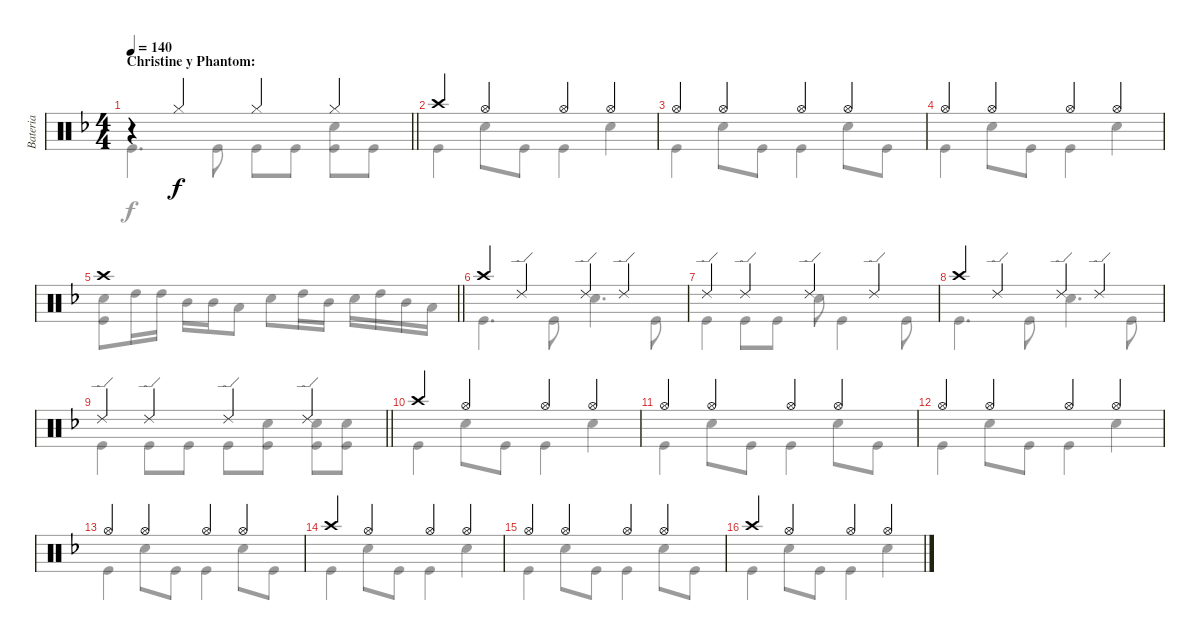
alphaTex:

\track ("Bateria" "Bateria") {instrument percussion}
\staff {score}
\articulation defaults
\voice
\ts (4 4)
\section ("" "Christine y Phantom:")
\tempo 140
\clef neutral
\barLineRight lightlight
\ks dminor
r.4{dy f} "Hi-Hat (closed)".4 "Hi-Hat (closed)".4 "Hi-Hat (closed)".4 |
"Crash high (hit)".4 "Hi-Hat (open)".4 "Hi-Hat (open)".4 "Hi-Hat (open)".4 |
"Hi-Hat (open)".4 "Hi-Hat (open)".4 "Hi-Hat (open)".4 "Hi-Hat (open)".4 |
"Hi-Hat (open)".4 "Hi-Hat (open)".4 "Hi-Hat (open)".4 "Hi-Hat (open)".4 |
\barLineRight lightlight "Crash high (hit)".1
|
"Crash high (hit)".4 "Ride (edge) 2".4 "Ride (edge) 2".4 "Ride (edge) 2".4 |
"Ride (edge) 2".4 "Ride (edge) 2".4 "Ride (edge) 2".4 "Ride (edge) 2".4 |
"Crash high (hit)".4 "Ride (edge) 2".4 "Ride (edge) 2".4 "Ride (edge) 2".4 |
\barLineRight lightlight "Ride (edge) 2".4 "Ride (edge) 2".4 "Ride (edge) 2".4 "Ride (edge) 2".4
|
"Crash high (hit)".4 "Hi-Hat (open)".4 "Hi-Hat (open)".4 "Hi-Hat (open)".4 |
"Hi-Hat (open)".4 "Hi-Hat (open)".4 "Hi-Hat (open)".4 "Hi-Hat (open)".4 |
"Hi-Hat (open)".4 "Hi-Hat (open)".4 "Hi-Hat (open)".4 "Hi-Hat (open)".4 |
"Hi-Hat (open)".4 "Hi-Hat (open)".4 "Hi-Hat (open)".4 "Hi-Hat (open)".4 |
"Crash high (hit)".4 "Hi-Hat (open)".4 "Hi-Hat (open)".4 "Hi-Hat (open)".4 |
"Hi-Hat (open)".4 "Hi-Hat (open)".4 "Hi-Hat (open)".4 "Hi-Hat (open)".4 |
"Crash high (hit)".4 "Hi-Hat (open)".4 "Hi-Hat (open)".4 "Hi-Hat (open)".4
\voice
\clef neutral
\ottava regular
\simile none
\barLineRight lightlight
\ks dminor "Kick (hit)".4{d dy f} "Kick (hit)".8 "Kick (hit)".8 "Kick (hit)".8
("Snare (hit) 2" "Kick (hit)").8 "Kick (hit)".8 |
"Kick (hit)".4 "Snare (hit) 2".8 "Kick (hit)".8 "Kick (hit)".4 "Snare (hit) 2".4 |
"Kick (hit)".4 "Snare (hit) 2".8 "Kick (hit)".8 "Kick (hit)".4 "Snare (hit) 2".8 "Kick (hit)".8 |
"Kick (hit)".4 "Snare (hit) 2".8 "Kick (hit)".8 "Kick (hit)".4 "Snare (hit) 2".4 |
\barLineRight lightlight
("Snare (hit) 2" "Kick (hit)").8 "High Tom (hit)".16 "High Tom (hit)".16 "Mid Tom (hit)".16 "Mid Tom (hit)".16 "Low Tom (hit)".8 "Snare (hit) 2".8 "High Tom (hit)".16 "Mid Tom (hit)".16 "Snare (hit) 2".16 "High Tom (hit)".16 "Mid Tom (hit)".16 "Low Tom (hit)".16 |
"Kick (hit)".4{d} "Kick (hit)".8 "Snare (hit) 2".4{d} "Kick (hit)".8 |
"Kick (hit)".4 "Kick (hit)".8 "Kick (hit)".8 "Snare (hit) 2".8 "Kick (hit)".4 "Kick (hit)".8 |
"Kick (hit)".4{d} "Kick (hit)".8 "Snare (hit) 2".4{d} "Kick (hit)".8 |
\barLineRight lightlight "Kick (hit)".4 "Kick (hit)".8 "Kick (hit)".8 "Kick (hit)".8
("Snare (hit) 2" "Kick (hit)").8 ("Snare (hit) 2" "Kick (hit)").8 ("Snare (hit) 2" "Kick (hit)").8 |
"Kick (hit)".4 "Snare (hit) 2".8 "Kick (hit)".8 "Kick (hit)".4 "Snare (hit) 2".4 |
"Kick (hit)".4 "Snare (hit) 2".8 "Kick (hit)".8 "Kick (hit)".4 "Snare (hit) 2".8 "Kick (hit)".8 |
"Kick (hit)".4 "Snare (hit) 2".8 "Kick (hit)".8 "Kick (hit)".4 "Snare (hit) 2".4 |
"Kick (hit)".4 "Snare (hit) 2".8 "Kick (hit)".8 "Kick (hit)".4 "Snare (hit) 2".8 "Kick (hit)".8 |
"Kick (hit)".4 "Snare (hit) 2".8 "Kick (hit)".8 "Kick (hit)".4 "Snare (hit) 2".4 |
"Kick (hit)".4 "Snare (hit) 2".8 "Kick (hit)".8 "Kick (hit)".4 "Snare (hit) 2".8 "Kick (hit)".8 |
"Kick (hit)".4 "Snare (hit) 2".8 "Kick (hit)".8 "Kick (hit)".4 "Snare (hit) 2".4
